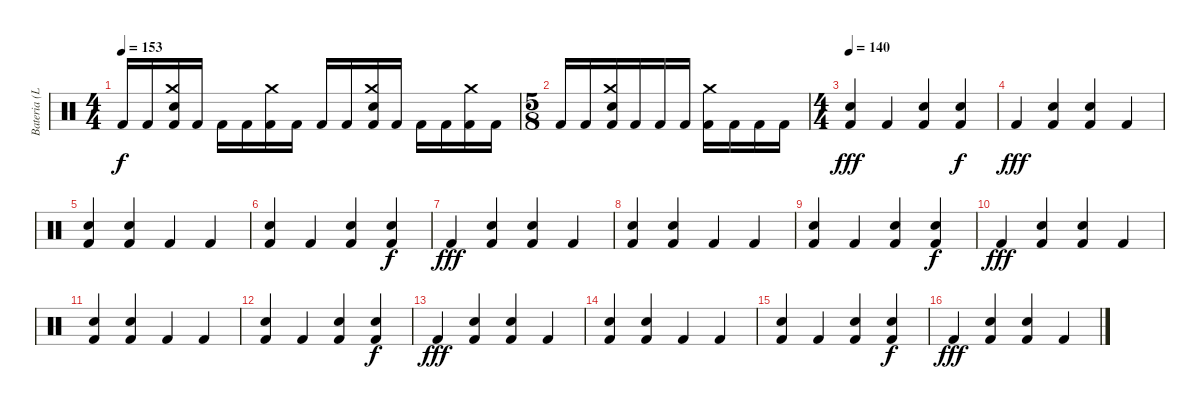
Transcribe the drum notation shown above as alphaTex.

\track ("Bateria (Lars)" "Bateria (L") {instrument percussion}
\staff {score}
\articulation defaults
\ts (4 4)
\tempo 153
\clef neutral
\ks c "Kick (hit) 2".16{dy f} "Kick (hit) 2".16
("Crash medium (hit)" "Electric Snare (hit)" "Kick (hit) 2").16 "Kick (hit) 2".16 "Kick (hit) 2".16 "Kick (hit) 2".16 ("Crash medium (hit)" "Kick (hit) 2").16 "Kick (hit) 2".16 "Kick (hit) 2".16 "Kick (hit) 2".16 ("Crash medium (hit)" "Electric Snare (hit)" "Kick (hit) 2").16 "Kick (hit) 2".16 "Kick (hit) 2".16 "Kick (hit) 2".16 ("Crash medium (hit)" "Kick (hit) 2").16 "Kick (hit) 2".16 |
\ts (5 8)
"Kick (hit) 2".16 "Kick (hit) 2".16 ("Crash medium (hit)" "Electric Snare (hit)" "Kick (hit) 2").16 "Kick (hit) 2".16 "Kick (hit) 2".16 "Kick (hit) 2".16 ("Crash medium (hit)" "Kick (hit) 2").16 "Kick (hit) 2".16 "Kick (hit) 2".16 "Kick (hit) 2".16 |
\ts (4 4)
\tempo 140
("Electric Snare (hit)" "Kick (hit) 2").4{dy fff} "Kick (hit) 2".4 ("Electric Snare (hit)" "Kick (hit) 2").4 ("Electric Snare (hit)" "Kick (hit) 2").4{dy f} |
"Kick (hit) 2".4{dy fff} ("Electric Snare (hit)" "Kick (hit) 2").4 ("Electric Snare (hit)" "Kick (hit) 2").4 "Kick (hit) 2".4 |
("Electric Snare (hit)" "Kick (hit) 2").4 ("Electric Snare (hit)" "Kick (hit) 2").4 "Kick (hit) 2".4 "Kick (hit) 2".4 |
("Electric Snare (hit)" "Kick (hit) 2").4 "Kick (hit) 2".4 ("Electric Snare (hit)" "Kick (hit) 2").4 ("Electric Snare (hit)" "Kick (hit) 2").4{dy f} |
"Kick (hit) 2".4{dy fff} ("Electric Snare (hit)" "Kick (hit) 2").4 ("Electric Snare (hit)" "Kick (hit) 2").4 "Kick (hit) 2".4 |
("Electric Snare (hit)" "Kick (hit) 2").4 ("Electric Snare (hit)" "Kick (hit) 2").4 "Kick (hit) 2".4 "Kick (hit) 2".4 |
("Electric Snare (hit)" "Kick (hit) 2").4 "Kick (hit) 2".4 ("Electric Snare (hit)" "Kick (hit) 2").4 ("Electric Snare (hit)" "Kick (hit) 2").4{dy f} |
"Kick (hit) 2".4{dy fff} ("Electric Snare (hit)" "Kick (hit) 2").4 ("Electric Snare (hit)" "Kick (hit) 2").4 "Kick (hit) 2".4 |
("Electric Snare (hit)" "Kick (hit) 2").4 ("Electric Snare (hit)" "Kick (hit) 2").4 "Kick (hit) 2".4 "Kick (hit) 2".4 |
("Electric Snare (hit)" "Kick (hit) 2").4 "Kick (hit) 2".4 ("Electric Snare (hit)" "Kick (hit) 2").4 ("Electric Snare (hit)" "Kick (hit) 2").4{dy f} |
"Kick (hit) 2".4{dy fff} ("Electric Snare (hit)" "Kick (hit) 2").4 ("Electric Snare (hit)" "Kick (hit) 2").4 "Kick (hit) 2".4 |
("Electric Snare (hit)" "Kick (hit) 2").4 ("Electric Snare (hit)" "Kick (hit) 2").4 "Kick (hit) 2".4 "Kick (hit) 2".4 |
("Electric Snare (hit)" "Kick (hit) 2").4 "Kick (hit) 2".4 ("Electric Snare (hit)" "Kick (hit) 2").4 ("Electric Snare (hit)" "Kick (hit) 2").4{dy f} |
"Kick (hit) 2".4{dy fff} ("Electric Snare (hit)" "Kick (hit) 2").4 ("Electric Snare (hit)" "Kick (hit) 2").4 "Kick (hit) 2".4
